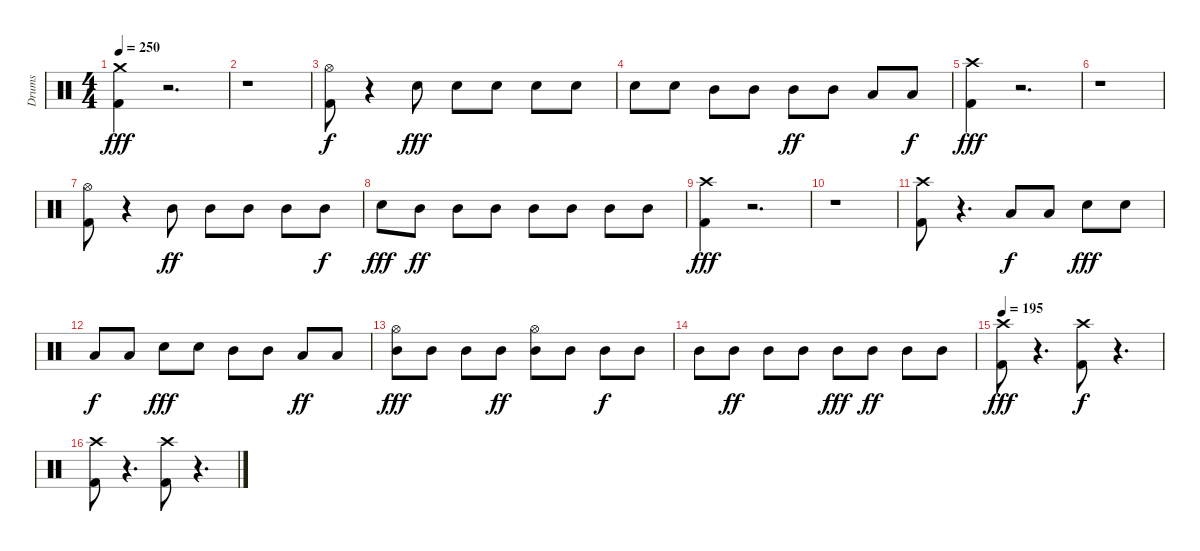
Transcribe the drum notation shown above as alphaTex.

\track ("Drums" "Drums") {instrument percussion}
\staff {score}
\articulation defaults
\ts (4 4)
\tempo 250
\clef neutral
\ks c
("Crash medium (hit)" "Kick (hit) 2").4{dy fff} r.2{d} |
r.1 |
("Hi-Hat (open)" "Kick (hit) 2").8{dy f} r.4 "Snare (hit) 2".8{dy fff} "Snare (hit) 2".8 "Snare (hit) 2".8 "Snare (hit) 2".8 "Snare (hit) 2".8 |
"Snare (hit) 2".8 "Snare (hit) 2".8 "Mid Tom (hit)".8 "Mid Tom (hit)".8 "Mid Tom (hit)".8{dy ff} "Mid Tom (hit)".8 "Low Tom (hit)".8 "Low Tom (hit)".8{dy f} |
("Crash high (hit)" "Kick (hit) 2").4{dy fff} r.2{d} |
r.1 |
("Hi-Hat (open)" "Kick (hit) 2").8 r.4 "Mid Tom (hit)".8{dy ff} "Mid Tom (hit)".8 "Mid Tom (hit)".8 "Mid Tom (hit)".8 "Mid Tom (hit)".8{dy f} |
"Snare (hit) 2".8{dy fff} "Mid Tom (hit)".8{dy ff} "Mid Tom (hit)".8 "Mid Tom (hit)".8 "Mid Tom (hit)".8 "Mid Tom (hit)".8 "Mid Tom (hit)".8 "Mid Tom (hit)".8 |
("Crash high (hit)" "Kick (hit) 2").4{dy fff} r.2{d} |
r.1 |
("Crash high (hit)" "Kick (hit) 2").8 r.4{d} "Low Tom (hit)".8{dy f} "Low Tom (hit)".8 "Snare (hit) 2".8{dy fff} "Snare (hit) 2".8 |
"Low Tom (hit)".8{dy f} "Low Tom (hit)".8 "Snare (hit) 2".8{dy fff} "Snare (hit) 2".8 "Mid Tom (hit)".8 "Mid Tom (hit)".8 "Low Tom (hit)".8{dy ff} "Low Tom (hit)".8 |
("Hi-Hat (open)" "Mid Tom (hit)").8{dy fff} "Mid Tom (hit)".8 "Mid Tom (hit)".8 "Mid Tom (hit)".8{dy ff} ("Hi-Hat (open)" "Mid Tom (hit)").8 "Mid Tom (hit)".8 "Mid Tom (hit)".8{dy f} "Mid Tom (hit)".8 |
"Mid Tom (hit)".8 "Mid Tom (hit)".8{dy ff} "Mid Tom (hit)".8 "Mid Tom (hit)".8 "Mid Tom (hit)".8{dy fff} "Mid Tom (hit)".8{dy ff} "Mid Tom (hit)".8 "Mid Tom (hit)".8 |
\tempo 195
("Crash high (hit)" "Kick (hit) 2").8{dy fff} r.4{d} ("Crash high (hit)" "Kick (hit) 2").8{dy f} r.4{d} |
("Crash high (hit)" "Kick (hit) 2").8 r.4{d} ("Crash high (hit)" "Kick (hit) 2").8 r.4{d}
